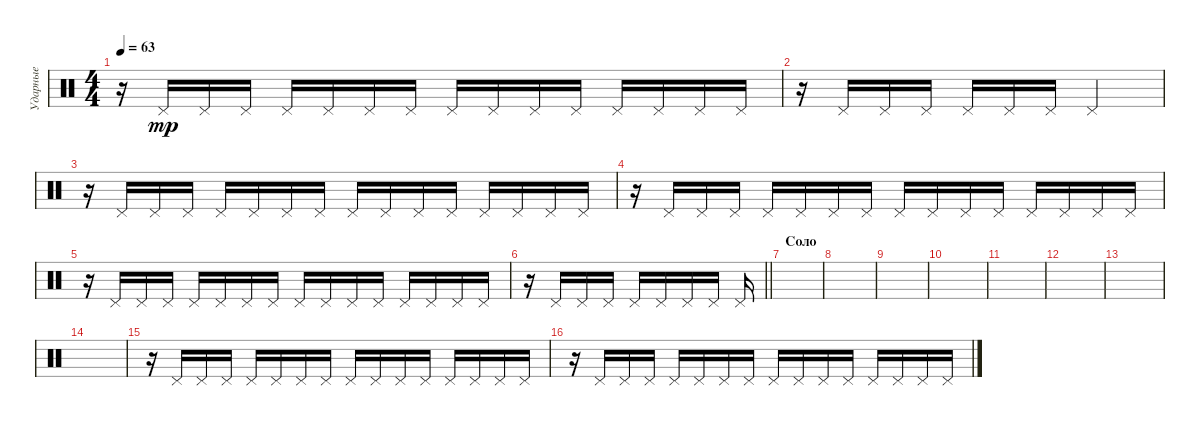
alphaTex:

\track ("Ударные" "Ударные") {instrument percussion}
\staff {score}
\articulation defaults
\ts (4 4)
\tempo 63
\clef neutral
\ks c
r.16{dy mp} "Pedal Hi-Hat (hit)".16 "Pedal Hi-Hat (hit)".16 "Pedal Hi-Hat (hit)".16 "Pedal Hi-Hat (hit)".16 "Pedal Hi-Hat (hit)".16 "Pedal Hi-Hat (hit)".16 "Pedal Hi-Hat (hit)".16 "Pedal Hi-Hat (hit)".16 "Pedal Hi-Hat (hit)".16 "Pedal Hi-Hat (hit)".16 "Pedal Hi-Hat (hit)".16 "Pedal Hi-Hat (hit)".16 "Pedal Hi-Hat (hit)".16 "Pedal Hi-Hat (hit)".16 "Pedal Hi-Hat (hit)".16 |
r.16 "Pedal Hi-Hat (hit)".16 "Pedal Hi-Hat (hit)".16 "Pedal Hi-Hat (hit)".16 "Pedal Hi-Hat (hit)".16 "Pedal Hi-Hat (hit)".16 "Pedal Hi-Hat (hit)".16 "Pedal Hi-Hat (hit)".2 |
r.16 "Pedal Hi-Hat (hit)".16 "Pedal Hi-Hat (hit)".16 "Pedal Hi-Hat (hit)".16 "Pedal Hi-Hat (hit)".16 "Pedal Hi-Hat (hit)".16 "Pedal Hi-Hat (hit)".16 "Pedal Hi-Hat (hit)".16 "Pedal Hi-Hat (hit)".16 "Pedal Hi-Hat (hit)".16 "Pedal Hi-Hat (hit)".16 "Pedal Hi-Hat (hit)".16 "Pedal Hi-Hat (hit)".16 "Pedal Hi-Hat (hit)".16 "Pedal Hi-Hat (hit)".16 "Pedal Hi-Hat (hit)".16 |
r.16 "Pedal Hi-Hat (hit)".16 "Pedal Hi-Hat (hit)".16 "Pedal Hi-Hat (hit)".16 "Pedal Hi-Hat (hit)".16 "Pedal Hi-Hat (hit)".16 "Pedal Hi-Hat (hit)".16 "Pedal Hi-Hat (hit)".16 "Pedal Hi-Hat (hit)".16 "Pedal Hi-Hat (hit)".16 "Pedal Hi-Hat (hit)".16 "Pedal Hi-Hat (hit)".16 "Pedal Hi-Hat (hit)".16 "Pedal Hi-Hat (hit)".16 "Pedal Hi-Hat (hit)".16 "Pedal Hi-Hat (hit)".16 |
r.16 "Pedal Hi-Hat (hit)".16 "Pedal Hi-Hat (hit)".16 "Pedal Hi-Hat (hit)".16 "Pedal Hi-Hat (hit)".16 "Pedal Hi-Hat (hit)".16 "Pedal Hi-Hat (hit)".16 "Pedal Hi-Hat (hit)".16 "Pedal Hi-Hat (hit)".16 "Pedal Hi-Hat (hit)".16 "Pedal Hi-Hat (hit)".16 "Pedal Hi-Hat (hit)".16 "Pedal Hi-Hat (hit)".16 "Pedal Hi-Hat (hit)".16 "Pedal Hi-Hat (hit)".16 "Pedal Hi-Hat (hit)".16 |
\barLineRight lightlight
r.16 "Pedal Hi-Hat (hit)".16 "Pedal Hi-Hat (hit)".16 "Pedal Hi-Hat (hit)".16 "Pedal Hi-Hat (hit)".16 "Pedal Hi-Hat (hit)".16 "Pedal Hi-Hat (hit)".16 "Pedal Hi-Hat (hit)".16 "Pedal Hi-Hat (hit)".16 |
\section ("" "Соло")
|
|
|
|
|
|
|
|
r.16 "Pedal Hi-Hat (hit)".16 "Pedal Hi-Hat (hit)".16 "Pedal Hi-Hat (hit)".16 "Pedal Hi-Hat (hit)".16 "Pedal Hi-Hat (hit)".16 "Pedal Hi-Hat (hit)".16 "Pedal Hi-Hat (hit)".16 "Pedal Hi-Hat (hit)".16 "Pedal Hi-Hat (hit)".16 "Pedal Hi-Hat (hit)".16 "Pedal Hi-Hat (hit)".16 "Pedal Hi-Hat (hit)".16 "Pedal Hi-Hat (hit)".16 "Pedal Hi-Hat (hit)".16 "Pedal Hi-Hat (hit)".16 |
r.16 "Pedal Hi-Hat (hit)".16 "Pedal Hi-Hat (hit)".16 "Pedal Hi-Hat (hit)".16 "Pedal Hi-Hat (hit)".16 "Pedal Hi-Hat (hit)".16 "Pedal Hi-Hat (hit)".16 "Pedal Hi-Hat (hit)".16 "Pedal Hi-Hat (hit)".16 "Pedal Hi-Hat (hit)".16 "Pedal Hi-Hat (hit)".16 "Pedal Hi-Hat (hit)".16 "Pedal Hi-Hat (hit)".16 "Pedal Hi-Hat (hit)".16 "Pedal Hi-Hat (hit)".16 "Pedal Hi-Hat (hit)".16
